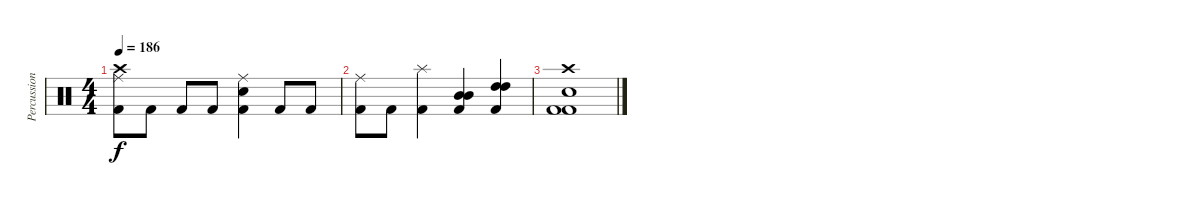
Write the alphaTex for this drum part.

\track ("Percussion" "Percussion") {instrument percussion}
\staff {score}
\articulation defaults
\ts (4 4)
\tempo 186
\clef neutral
\ks c
("Crash high (hit)" "Ride (middle)" "Kick (hit) 2").8{dy f} "Kick (hit) 2".8 "Kick (hit) 2".8 "Kick (hit) 2".8 ("Ride (middle)" "Electric Snare (hit)" "Kick (hit) 2").4 "Kick (hit) 2".8 "Kick (hit) 2".8 |
("Ride (middle)" "Kick (hit) 2").8 "Kick (hit) 2".8 ("Splash (hit)" "Kick (hit) 2").4 ("Mid Tom (hit)" "Mid Tom (hit)" "Kick (hit) 2").4 ("High Tom (hit)" "High Tom (hit)" "Kick (hit) 2").4 |
("Crash high (hit)" "Electric Snare (hit)" "Kick (hit) 2" "Kick (hit) 2").1
